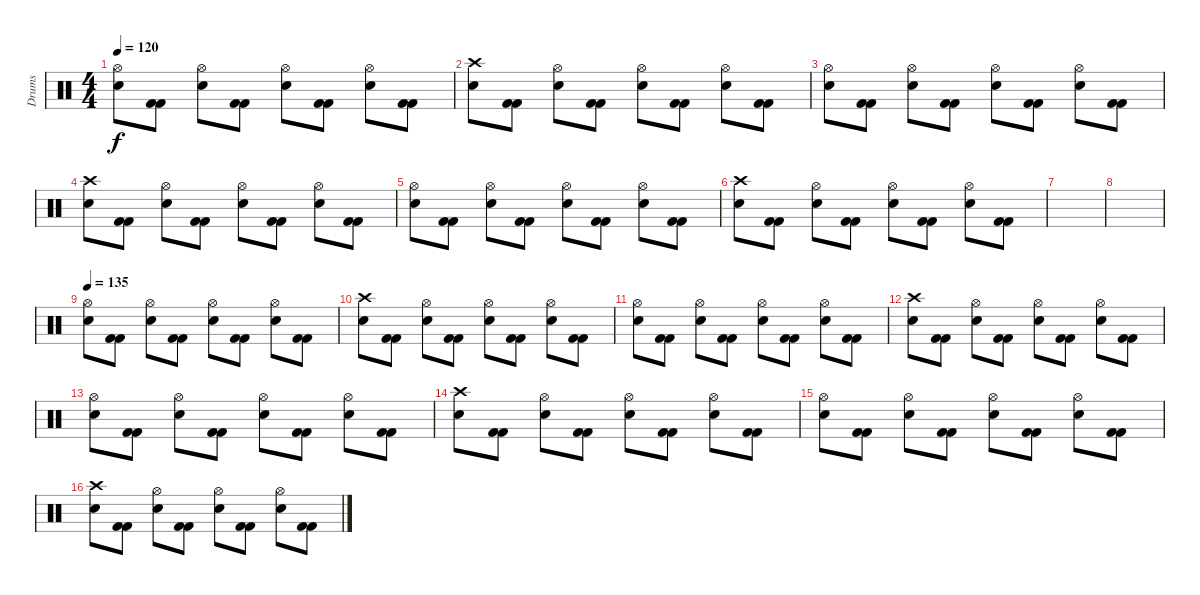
\track ("Drums" "Drums") {instrument percussion}
\staff {score}
\articulation defaults
\ts (4 4)
\tempo 120
\clef neutral
\ks c
("Hi-Hat (open)" "Electric Snare (hit)").8{dy f} ("Kick (hit) 2" "Kick (hit) 2").8 ("Electric Snare (hit)" "Hi-Hat (open)").8 ("Kick (hit) 2" "Kick (hit) 2").8 ("Hi-Hat (open)" "Electric Snare (hit)").8 ("Kick (hit) 2" "Kick (hit) 2").8 ("Electric Snare (hit)" "Hi-Hat (open)").8 ("Kick (hit) 2" "Kick (hit) 2").8 |
("Crash high (hit)" "Electric Snare (hit)").8 ("Kick (hit) 2" "Kick (hit) 2").8 ("Electric Snare (hit)" "Hi-Hat (open)").8 ("Kick (hit) 2" "Kick (hit) 2").8 ("Hi-Hat (open)" "Electric Snare (hit)").8 ("Kick (hit) 2" "Kick (hit) 2").8 ("Electric Snare (hit)" "Hi-Hat (open)").8 ("Kick (hit) 2" "Kick (hit) 2").8 |
("Hi-Hat (open)" "Electric Snare (hit)").8 ("Kick (hit) 2" "Kick (hit) 2").8 ("Electric Snare (hit)" "Hi-Hat (open)").8 ("Kick (hit) 2" "Kick (hit) 2").8 ("Hi-Hat (open)" "Electric Snare (hit)").8 ("Kick (hit) 2" "Kick (hit) 2").8 ("Electric Snare (hit)" "Hi-Hat (open)").8 ("Kick (hit) 2" "Kick (hit) 2").8 |
("Crash high (hit)" "Electric Snare (hit)").8 ("Kick (hit) 2" "Kick (hit) 2").8 ("Electric Snare (hit)" "Hi-Hat (open)").8 ("Kick (hit) 2" "Kick (hit) 2").8 ("Hi-Hat (open)" "Electric Snare (hit)").8 ("Kick (hit) 2" "Kick (hit) 2").8 ("Electric Snare (hit)" "Hi-Hat (open)").8 ("Kick (hit) 2" "Kick (hit) 2").8 |
("Hi-Hat (open)" "Electric Snare (hit)").8 ("Kick (hit) 2" "Kick (hit) 2").8 ("Electric Snare (hit)" "Hi-Hat (open)").8 ("Kick (hit) 2" "Kick (hit) 2").8 ("Hi-Hat (open)" "Electric Snare (hit)").8 ("Kick (hit) 2" "Kick (hit) 2").8 ("Electric Snare (hit)" "Hi-Hat (open)").8 ("Kick (hit) 2" "Kick (hit) 2").8 |
("Crash high (hit)" "Electric Snare (hit)").8 ("Kick (hit) 2" "Kick (hit) 2").8 ("Electric Snare (hit)" "Hi-Hat (open)").8 ("Kick (hit) 2" "Kick (hit) 2").8 ("Hi-Hat (open)" "Electric Snare (hit)").8 ("Kick (hit) 2" "Kick (hit) 2").8 ("Electric Snare (hit)" "Hi-Hat (open)").8 ("Kick (hit) 2" "Kick (hit) 2").8 |
|
|
\tempo 135
("Hi-Hat (open)" "Electric Snare (hit)").8 ("Kick (hit) 2" "Kick (hit) 2").8 ("Electric Snare (hit)" "Hi-Hat (open)").8 ("Kick (hit) 2" "Kick (hit) 2").8 ("Hi-Hat (open)" "Electric Snare (hit)").8 ("Kick (hit) 2" "Kick (hit) 2").8 ("Electric Snare (hit)" "Hi-Hat (open)").8 ("Kick (hit) 2" "Kick (hit) 2").8 |
("Crash high (hit)" "Electric Snare (hit)").8 ("Kick (hit) 2" "Kick (hit) 2").8 ("Electric Snare (hit)" "Hi-Hat (open)").8 ("Kick (hit) 2" "Kick (hit) 2").8 ("Hi-Hat (open)" "Electric Snare (hit)").8 ("Kick (hit) 2" "Kick (hit) 2").8 ("Electric Snare (hit)" "Hi-Hat (open)").8 ("Kick (hit) 2" "Kick (hit) 2").8 |
("Hi-Hat (open)" "Electric Snare (hit)").8 ("Kick (hit) 2" "Kick (hit) 2").8 ("Electric Snare (hit)" "Hi-Hat (open)").8 ("Kick (hit) 2" "Kick (hit) 2").8 ("Hi-Hat (open)" "Electric Snare (hit)").8 ("Kick (hit) 2" "Kick (hit) 2").8 ("Electric Snare (hit)" "Hi-Hat (open)").8 ("Kick (hit) 2" "Kick (hit) 2").8 |
("Crash high (hit)" "Electric Snare (hit)").8 ("Kick (hit) 2" "Kick (hit) 2").8 ("Electric Snare (hit)" "Hi-Hat (open)").8 ("Kick (hit) 2" "Kick (hit) 2").8 ("Hi-Hat (open)" "Electric Snare (hit)").8 ("Kick (hit) 2" "Kick (hit) 2").8 ("Electric Snare (hit)" "Hi-Hat (open)").8 ("Kick (hit) 2" "Kick (hit) 2").8 |
("Hi-Hat (open)" "Electric Snare (hit)").8 ("Kick (hit) 2" "Kick (hit) 2").8 ("Electric Snare (hit)" "Hi-Hat (open)").8 ("Kick (hit) 2" "Kick (hit) 2").8 ("Hi-Hat (open)" "Electric Snare (hit)").8 ("Kick (hit) 2" "Kick (hit) 2").8 ("Electric Snare (hit)" "Hi-Hat (open)").8 ("Kick (hit) 2" "Kick (hit) 2").8 |
("Crash high (hit)" "Electric Snare (hit)").8 ("Kick (hit) 2" "Kick (hit) 2").8 ("Electric Snare (hit)" "Hi-Hat (open)").8 ("Kick (hit) 2" "Kick (hit) 2").8 ("Hi-Hat (open)" "Electric Snare (hit)").8 ("Kick (hit) 2" "Kick (hit) 2").8 ("Electric Snare (hit)" "Hi-Hat (open)").8 ("Kick (hit) 2" "Kick (hit) 2").8 |
("Hi-Hat (open)" "Electric Snare (hit)").8 ("Kick (hit) 2" "Kick (hit) 2").8 ("Electric Snare (hit)" "Hi-Hat (open)").8 ("Kick (hit) 2" "Kick (hit) 2").8 ("Hi-Hat (open)" "Electric Snare (hit)").8 ("Kick (hit) 2" "Kick (hit) 2").8 ("Electric Snare (hit)" "Hi-Hat (open)").8 ("Kick (hit) 2" "Kick (hit) 2").8 |
("Crash high (hit)" "Electric Snare (hit)").8 ("Kick (hit) 2" "Kick (hit) 2").8 ("Electric Snare (hit)" "Hi-Hat (open)").8 ("Kick (hit) 2" "Kick (hit) 2").8 ("Hi-Hat (open)" "Electric Snare (hit)").8 ("Kick (hit) 2" "Kick (hit) 2").8 ("Electric Snare (hit)" "Hi-Hat (open)").8 ("Kick (hit) 2" "Kick (hit) 2").8
